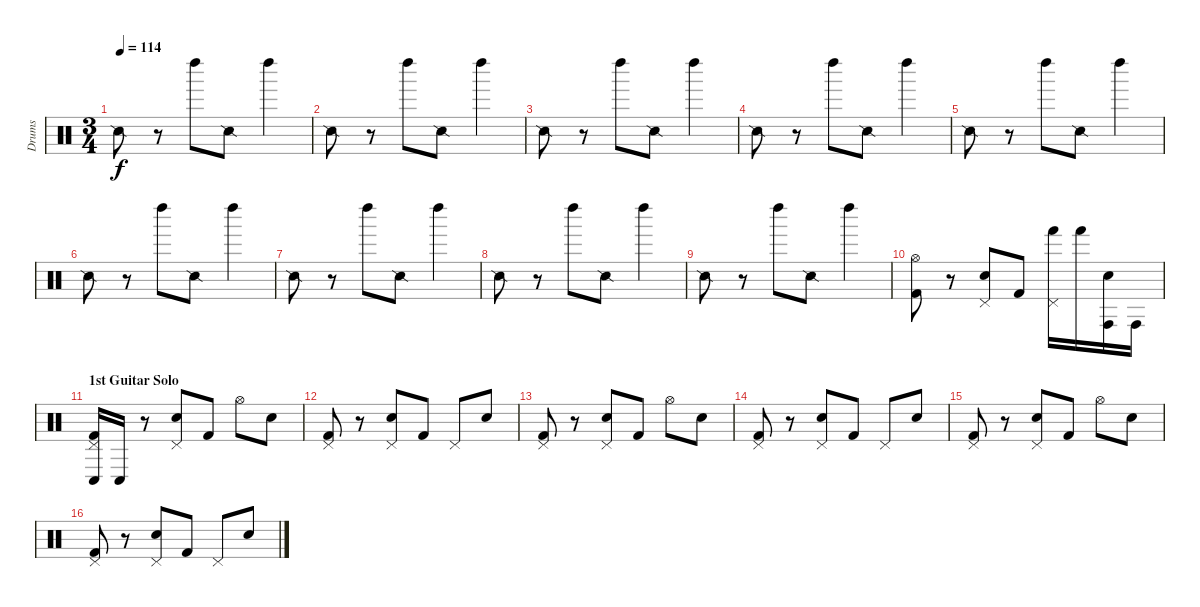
\track ("Drums" "Drums") {instrument percussion}
\staff {score}
\articulation defaults
\ts (3 4)
\tempo 114
\clef neutral
\ks c "Snare (side stick) 2".8{dy f}
r.8 "Left Maraca (hit)".8 "Snare (side stick) 2".8 "Left Maraca (hit)".4 |
"Snare (side stick) 2".8 r.8 "Left Maraca (hit)".8 "Snare (side stick) 2".8 "Left Maraca (hit)".4 |
"Snare (side stick) 2".8 r.8 "Left Maraca (hit)".8 "Snare (side stick) 2".8 "Left Maraca (hit)".4 |
"Snare (side stick) 2".8 r.8 "Left Maraca (hit)".8 "Snare (side stick) 2".8 "Left Maraca (hit)".4 |
"Snare (side stick) 2".8 r.8 "Left Maraca (hit)".8 "Snare (side stick) 2".8 "Left Maraca (hit)".4 |
"Snare (side stick) 2".8 r.8 "Left Maraca (hit)".8 "Snare (side stick) 2".8 "Left Maraca (hit)".4 |
"Snare (side stick) 2".8 r.8 "Left Maraca (hit)".8 "Snare (side stick) 2".8 "Left Maraca (hit)".4 |
"Snare (side stick) 2".8 r.8 "Left Maraca (hit)".8 "Snare (side stick) 2".8 "Left Maraca (hit)".4 |
"Snare (side stick) 2".8 r.8 "Left Maraca (hit)".8 "Snare (side stick) 2".8 "Left Maraca (hit)".4 |
("Kick (hit) 2" "Hi-Hat (open)").8 r.8 ("Pedal Hi-Hat (hit)" "Electric Snare (hit)").8 "Kick (hit) 2".8 ("Pedal Hi-Hat (hit)" "Hand (hit)").16 "Hand (hit)".16 ("Conga high (hit)" "Electric Snare (hit)").16 "Conga high (hit)".16 |
\section ("" "1st Guitar Solo")
("Kick (hit) 2" "Pedal Hi-Hat (hit)" "Conga low (hit)").16 "Conga low (hit)".16 r.8 ("Electric Snare (hit)" "Pedal Hi-Hat (hit)").8 "Kick (hit) 2".8 "Hi-Hat (open)".8 "Electric Snare (hit)".8 |
("Pedal Hi-Hat (hit)" "Kick (hit) 2").8 r.8 ("Electric Snare (hit)" "Pedal Hi-Hat (hit)").8 "Kick (hit) 2".8 "Pedal Hi-Hat (hit)".8 "Electric Snare (hit)".8 |
("Pedal Hi-Hat (hit)" "Kick (hit) 2").8 r.8 ("Electric Snare (hit)" "Pedal Hi-Hat (hit)").8 "Kick (hit) 2".8 "Hi-Hat (open)".8 "Electric Snare (hit)".8 |
("Pedal Hi-Hat (hit)" "Kick (hit) 2").8 r.8 ("Electric Snare (hit)" "Pedal Hi-Hat (hit)").8 "Kick (hit) 2".8 "Pedal Hi-Hat (hit)".8 "Electric Snare (hit)".8 |
("Pedal Hi-Hat (hit)" "Kick (hit) 2").8 r.8 ("Electric Snare (hit)" "Pedal Hi-Hat (hit)").8 "Kick (hit) 2".8 "Hi-Hat (open)".8 "Electric Snare (hit)".8 |
("Pedal Hi-Hat (hit)" "Kick (hit) 2").8 r.8 ("Electric Snare (hit)" "Pedal Hi-Hat (hit)").8 "Kick (hit) 2".8 "Pedal Hi-Hat (hit)".8 "Electric Snare (hit)".8
